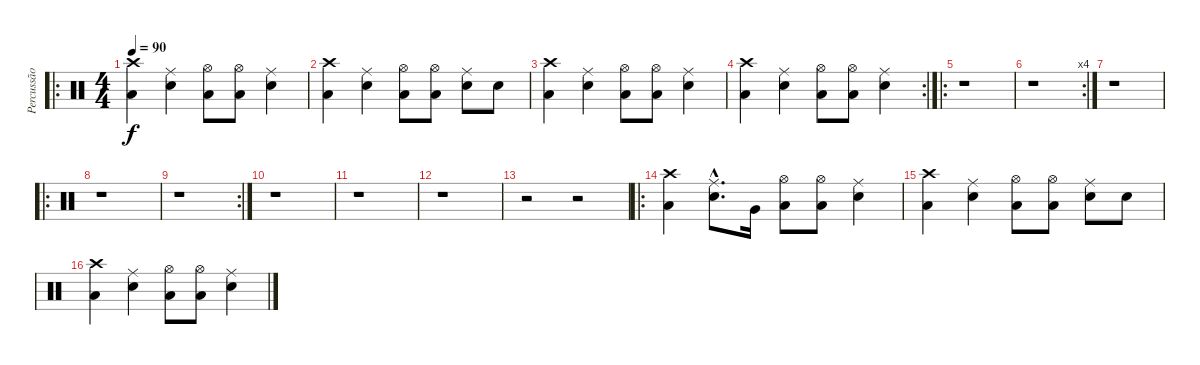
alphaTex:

\track ("Percussão" "Percussão") {instrument percussion}
\staff {score}
\articulation defaults
\ro
\ts (4 4)
\tempo 90
\clef neutral
\ks c
("Crash high (hit)" "Low Floor Tom (hit)").4{dy f} ("Ride (middle)" "Snare (hit) 2").4 ("Hi-Hat (open)" "Low Floor Tom (hit)").8 ("Hi-Hat (open)" "Low Floor Tom (hit)").8 ("Ride (middle)" "Snare (hit) 2").4 |
("Crash high (hit)" "Low Floor Tom (hit)").4 ("Ride (middle)" "Snare (hit) 2").4 ("Low Floor Tom (hit)" "Hi-Hat (open)").8 ("Hi-Hat (open)" "Low Floor Tom (hit)").8 ("Ride (middle)" "Snare (hit) 2").8 "Snare (hit) 2".8 |
("Crash high (hit)" "Low Floor Tom (hit)").4 ("Ride (middle)" "Snare (hit) 2").4 ("Hi-Hat (open)" "Low Floor Tom (hit)").8 ("Hi-Hat (open)" "Low Floor Tom (hit)").8 ("Ride (middle)" "Snare (hit) 2").4 |
\rc 2
("Crash high (hit)" "Low Floor Tom (hit)").4 ("Ride (middle)" "Snare (hit) 2").4 ("Hi-Hat (open)" "Low Floor Tom (hit)").8 ("Hi-Hat (open)" "Low Floor Tom (hit)").8 ("Ride (middle)" "Snare (hit) 2").4 |
\ro
r.1 |
\rc 4
r.1 |
r.1 |
\ro
r.1 |
\rc 2
r.1 |
r.1 |
r.1 |
r.1 |
r.2 r.2 |
\ro
("Crash high (hit)" "Low Floor Tom (hit)").4 ("Ride (middle)"{hac} "Snare (hit) 2"{hac}).8{d} "Very Low Tom (hit)".16 ("Hi-Hat (open)" "Low Floor Tom (hit)").8 ("Hi-Hat (open)" "Low Floor Tom (hit)").8 ("Ride (middle)" "Snare (hit) 2").4 |
("Crash high (hit)" "Low Floor Tom (hit)").4 ("Ride (middle)" "Snare (hit) 2").4 ("Low Floor Tom (hit)" "Hi-Hat (open)").8 ("Hi-Hat (open)" "Low Floor Tom (hit)").8 ("Ride (middle)" "Snare (hit) 2").8 "Snare (hit) 2".8 |
("Crash high (hit)" "Low Floor Tom (hit)").4 ("Ride (middle)" "Snare (hit) 2").4 ("Hi-Hat (open)" "Low Floor Tom (hit)").8 ("Hi-Hat (open)" "Low Floor Tom (hit)").8 ("Ride (middle)" "Snare (hit) 2").4
